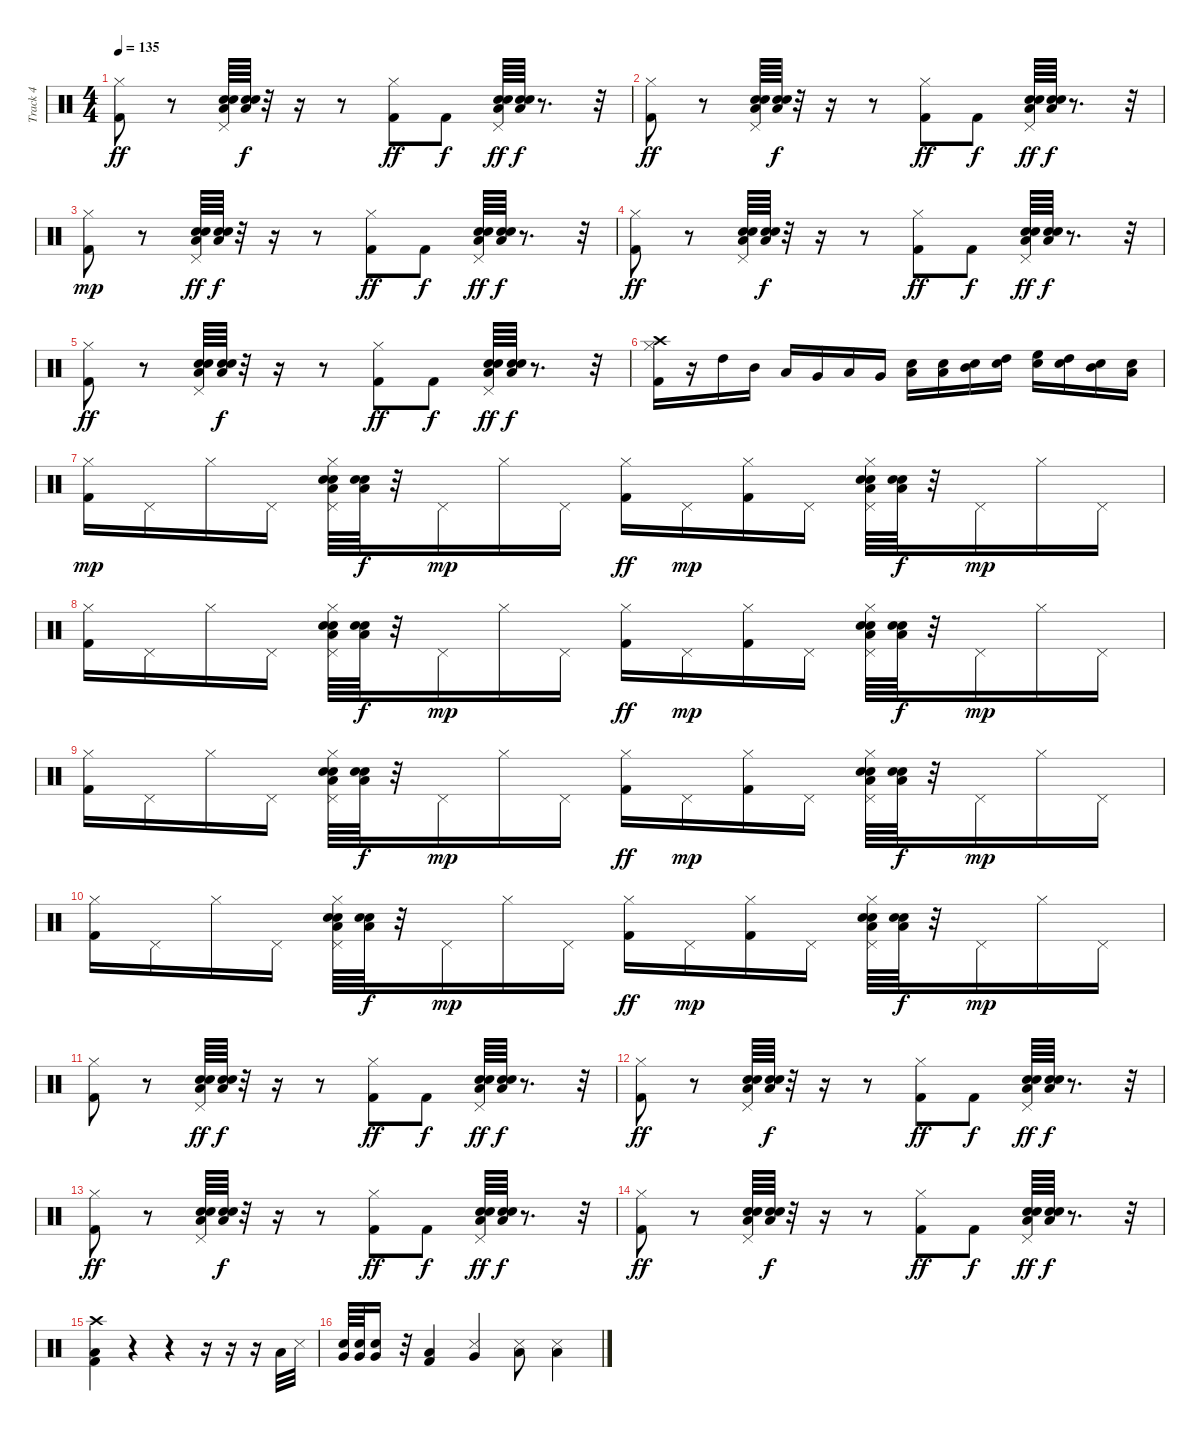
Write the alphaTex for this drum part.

\track ("Track 4" "Track 4") {instrument percussion}
\staff {score}
\articulation defaults
\ts (4 4)
\tempo 135
\clef neutral
\ks c
("Kick (hit) 2" "Hi-Hat (closed)").8{dy ff} r.8 ("Electric Snare (hit)" "Low Tom (hit)" "Snare (hit) 2" "Pedal Hi-Hat (hit)").64 ("Electric Snare (hit)" "Low Tom (hit)" "Snare (hit) 2").64{dy f} r.32 r.16 r.8 ("Kick (hit) 2" "Hi-Hat (closed)").8{dy ff} "Kick (hit) 2".8{dy f} ("Electric Snare (hit)" "Low Tom (hit)" "Snare (hit) 2" "Pedal Hi-Hat (hit)").64{dy ff} ("Electric Snare (hit)" "Low Tom (hit)" "Snare (hit) 2").64{dy f} r.8{d} r.32 |
("Kick (hit) 2" "Hi-Hat (closed)").8{dy ff} r.8 ("Electric Snare (hit)" "Low Tom (hit)" "Snare (hit) 2" "Pedal Hi-Hat (hit)").64 ("Electric Snare (hit)" "Low Tom (hit)" "Snare (hit) 2").64{dy f} r.32 r.16 r.8 ("Kick (hit) 2" "Hi-Hat (closed)").8{dy ff} "Kick (hit) 2".8{dy f} ("Electric Snare (hit)" "Low Tom (hit)" "Snare (hit) 2" "Pedal Hi-Hat (hit)").64{dy ff} ("Electric Snare (hit)" "Low Tom (hit)" "Snare (hit) 2").64{dy f} r.8{d} r.32 |
("Kick (hit) 2" "Hi-Hat (closed)").8{dy mp} r.8 ("Electric Snare (hit)" "Low Tom (hit)" "Snare (hit) 2" "Pedal Hi-Hat (hit)").64{dy ff} ("Electric Snare (hit)" "Low Tom (hit)" "Snare (hit) 2").64{dy f} r.32 r.16 r.8 ("Kick (hit) 2" "Hi-Hat (closed)").8{dy ff} "Kick (hit) 2".8{dy f} ("Electric Snare (hit)" "Low Tom (hit)" "Snare (hit) 2" "Pedal Hi-Hat (hit)").64{dy ff} ("Electric Snare (hit)" "Low Tom (hit)" "Snare (hit) 2").64{dy f} r.8{d} r.32 |
("Kick (hit) 2" "Hi-Hat (closed)").8{dy ff} r.8 ("Electric Snare (hit)" "Low Tom (hit)" "Snare (hit) 2" "Pedal Hi-Hat (hit)").64 ("Electric Snare (hit)" "Low Tom (hit)" "Snare (hit) 2").64{dy f} r.32 r.16 r.8 ("Kick (hit) 2" "Hi-Hat (closed)").8{dy ff} "Kick (hit) 2".8{dy f} ("Electric Snare (hit)" "Low Tom (hit)" "Snare (hit) 2" "Pedal Hi-Hat (hit)").64{dy ff} ("Electric Snare (hit)" "Low Tom (hit)" "Snare (hit) 2").64{dy f} r.8{d} r.32 |
("Kick (hit) 2" "Hi-Hat (closed)").8{dy ff} r.8 ("Electric Snare (hit)" "Low Tom (hit)" "Snare (hit) 2" "Pedal Hi-Hat (hit)").64 ("Electric Snare (hit)" "Low Tom (hit)" "Snare (hit) 2").64{dy f} r.32 r.16 r.8 ("Kick (hit) 2" "Hi-Hat (closed)").8{dy ff} "Kick (hit) 2".8{dy f} ("Electric Snare (hit)" "Low Tom (hit)" "Snare (hit) 2" "Pedal Hi-Hat (hit)").64{dy ff} ("Electric Snare (hit)" "Low Tom (hit)" "Snare (hit) 2").64{dy f} r.8{d} r.32 |
("Hi-Hat (closed)" "Kick (hit) 2" "Crash high (hit)").16 r.16 "High Tom (hit)".16 "Mid Tom (hit)".16 "Low Tom (hit)".16 "Very Low Tom (hit)".16 "Low Floor Tom (hit)".16 "Very Low Tom (hit)".16 ("Electric Snare (hit)" "Low Tom (hit)").16 ("Electric Snare (hit)" "Low Tom (hit)").16 ("Electric Snare (hit)" "Mid Tom (hit)").16 ("Electric Snare (hit)" "High Tom (hit)").16 ("Electric Snare (hit)" "High Floor Tom (hit)").16 ("Electric Snare (hit)" "High Tom (hit)").16 ("Electric Snare (hit)" "Mid Tom (hit)").16 ("Electric Snare (hit)" "Low Tom (hit)").16 |
("Kick (hit) 2" "Hi-Hat (closed)").16{dy mp} "Pedal Hi-Hat (hit)".16 "Hi-Hat (closed)".16 "Pedal Hi-Hat (hit)".16 ("Electric Snare (hit)" "Low Tom (hit)" "Snare (hit) 2" "Pedal Hi-Hat (hit)" "Hi-Hat (closed)").64 ("Electric Snare (hit)" "Low Tom (hit)" "Snare (hit) 2").64{dy f} r.32 "Pedal Hi-Hat (hit)".16{dy mp} "Hi-Hat (closed)".16 "Pedal Hi-Hat (hit)".16 ("Kick (hit) 2" "Hi-Hat (closed)").16{dy ff} "Pedal Hi-Hat (hit)".16{dy mp} ("Kick (hit) 2" "Hi-Hat (closed)").16 "Pedal Hi-Hat (hit)".16 ("Electric Snare (hit)" "Low Tom (hit)" "Snare (hit) 2" "Pedal Hi-Hat (hit)" "Hi-Hat (closed)").64 ("Electric Snare (hit)" "Low Tom (hit)" "Snare (hit) 2").64{dy f} r.32 "Pedal Hi-Hat (hit)".16{dy mp} "Hi-Hat (closed)".16 "Pedal Hi-Hat (hit)".16 |
("Kick (hit) 2" "Hi-Hat (closed)").16 "Pedal Hi-Hat (hit)".16 "Hi-Hat (closed)".16 "Pedal Hi-Hat (hit)".16 ("Electric Snare (hit)" "Low Tom (hit)" "Snare (hit) 2" "Pedal Hi-Hat (hit)" "Hi-Hat (closed)").64 ("Electric Snare (hit)" "Low Tom (hit)" "Snare (hit) 2").64{dy f} r.32 "Pedal Hi-Hat (hit)".16{dy mp} "Hi-Hat (closed)".16 "Pedal Hi-Hat (hit)".16 ("Kick (hit) 2" "Hi-Hat (closed)").16{dy ff} "Pedal Hi-Hat (hit)".16{dy mp} ("Kick (hit) 2" "Hi-Hat (closed)").16 "Pedal Hi-Hat (hit)".16 ("Electric Snare (hit)" "Low Tom (hit)" "Snare (hit) 2" "Pedal Hi-Hat (hit)" "Hi-Hat (closed)").64 ("Electric Snare (hit)" "Low Tom (hit)" "Snare (hit) 2").64{dy f} r.32 "Pedal Hi-Hat (hit)".16{dy mp} "Hi-Hat (closed)".16 "Pedal Hi-Hat (hit)".16 |
("Kick (hit) 2" "Hi-Hat (closed)").16 "Pedal Hi-Hat (hit)".16 "Hi-Hat (closed)".16 "Pedal Hi-Hat (hit)".16 ("Electric Snare (hit)" "Low Tom (hit)" "Snare (hit) 2" "Pedal Hi-Hat (hit)" "Hi-Hat (closed)").64 ("Electric Snare (hit)" "Low Tom (hit)" "Snare (hit) 2").64{dy f} r.32 "Pedal Hi-Hat (hit)".16{dy mp} "Hi-Hat (closed)".16 "Pedal Hi-Hat (hit)".16 ("Kick (hit) 2" "Hi-Hat (closed)").16{dy ff} "Pedal Hi-Hat (hit)".16{dy mp} ("Kick (hit) 2" "Hi-Hat (closed)").16 "Pedal Hi-Hat (hit)".16 ("Electric Snare (hit)" "Low Tom (hit)" "Snare (hit) 2" "Pedal Hi-Hat (hit)" "Hi-Hat (closed)").64 ("Electric Snare (hit)" "Low Tom (hit)" "Snare (hit) 2").64{dy f} r.32 "Pedal Hi-Hat (hit)".16{dy mp} "Hi-Hat (closed)".16 "Pedal Hi-Hat (hit)".16 |
("Kick (hit) 2" "Hi-Hat (closed)").16 "Pedal Hi-Hat (hit)".16 "Hi-Hat (closed)".16 "Pedal Hi-Hat (hit)".16 ("Electric Snare (hit)" "Low Tom (hit)" "Snare (hit) 2" "Pedal Hi-Hat (hit)" "Hi-Hat (closed)").64 ("Electric Snare (hit)" "Low Tom (hit)" "Snare (hit) 2").64{dy f} r.32 "Pedal Hi-Hat (hit)".16{dy mp} "Hi-Hat (closed)".16 "Pedal Hi-Hat (hit)".16 ("Kick (hit) 2" "Hi-Hat (closed)").16{dy ff} "Pedal Hi-Hat (hit)".16{dy mp} ("Kick (hit) 2" "Hi-Hat (closed)").16 "Pedal Hi-Hat (hit)".16 ("Electric Snare (hit)" "Low Tom (hit)" "Snare (hit) 2" "Pedal Hi-Hat (hit)" "Hi-Hat (closed)").64 ("Electric Snare (hit)" "Low Tom (hit)" "Snare (hit) 2").64{dy f} r.32 "Pedal Hi-Hat (hit)".16{dy mp} "Hi-Hat (closed)".16 "Pedal Hi-Hat (hit)".16 |
("Kick (hit) 2" "Hi-Hat (closed)").8 r.8 ("Electric Snare (hit)" "Low Tom (hit)" "Snare (hit) 2" "Pedal Hi-Hat (hit)").64{dy ff} ("Electric Snare (hit)" "Low Tom (hit)" "Snare (hit) 2").64{dy f} r.32 r.16 r.8 ("Kick (hit) 2" "Hi-Hat (closed)").8{dy ff} "Kick (hit) 2".8{dy f} ("Electric Snare (hit)" "Low Tom (hit)" "Snare (hit) 2" "Pedal Hi-Hat (hit)").64{dy ff} ("Electric Snare (hit)" "Low Tom (hit)" "Snare (hit) 2").64{dy f} r.8{d} r.32 |
("Kick (hit) 2" "Hi-Hat (closed)").8{dy ff} r.8 ("Electric Snare (hit)" "Low Tom (hit)" "Snare (hit) 2" "Pedal Hi-Hat (hit)").64 ("Electric Snare (hit)" "Low Tom (hit)" "Snare (hit) 2").64{dy f} r.32 r.16 r.8 ("Kick (hit) 2" "Hi-Hat (closed)").8{dy ff} "Kick (hit) 2".8{dy f} ("Electric Snare (hit)" "Low Tom (hit)" "Snare (hit) 2" "Pedal Hi-Hat (hit)").64{dy ff} ("Electric Snare (hit)" "Low Tom (hit)" "Snare (hit) 2").64{dy f} r.8{d} r.32 |
("Kick (hit) 2" "Hi-Hat (closed)").8{dy ff} r.8 ("Electric Snare (hit)" "Low Tom (hit)" "Snare (hit) 2" "Pedal Hi-Hat (hit)").64 ("Electric Snare (hit)" "Low Tom (hit)" "Snare (hit) 2").64{dy f} r.32 r.16 r.8 ("Kick (hit) 2" "Hi-Hat (closed)").8{dy ff} "Kick (hit) 2".8{dy f} ("Electric Snare (hit)" "Low Tom (hit)" "Snare (hit) 2" "Pedal Hi-Hat (hit)").64{dy ff} ("Electric Snare (hit)" "Low Tom (hit)" "Snare (hit) 2").64{dy f} r.8{d} r.32 |
("Kick (hit) 2" "Hi-Hat (closed)").8{dy ff} r.8 ("Electric Snare (hit)" "Low Tom (hit)" "Snare (hit) 2" "Pedal Hi-Hat (hit)").64 ("Electric Snare (hit)" "Low Tom (hit)" "Snare (hit) 2").64{dy f} r.32 r.16 r.8 ("Kick (hit) 2" "Hi-Hat (closed)").8{dy ff} "Kick (hit) 2".8{dy f} ("Electric Snare (hit)" "Low Tom (hit)" "Snare (hit) 2" "Pedal Hi-Hat (hit)").64{dy ff} ("Electric Snare (hit)" "Low Tom (hit)" "Snare (hit) 2").64{dy f} r.8{d} r.32 |
("Low Tom (hit)" "Kick (hit) 2" "Crash high (hit)").4 r.4 r.4 r.16 r.16 r.16 "Low Floor Tom (hit)".32 "Snare (side stick) 3".32 |
("Very Low Tom (hit)" "Electric Snare (hit)").64 ("Very Low Tom (hit)" "Electric Snare (hit)").64 ("Very Low Tom (hit)" "Electric Snare (hit)").16 r.32 ("Low Floor Tom (hit)" "Kick (hit) 2").4 ("Very Low Tom (hit)" "Snare (side stick) 3").4 ("Low Floor Tom (hit)" "Snare (side stick) 3").8 ("Low Floor Tom (hit)" "Snare (side stick) 3").4
